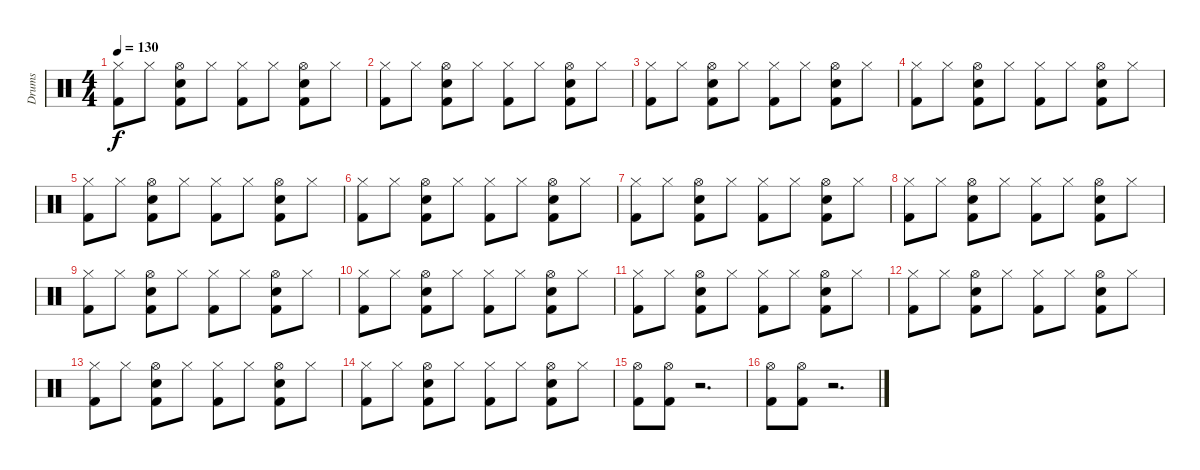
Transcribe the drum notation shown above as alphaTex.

\track ("Drums" "Drums") {instrument percussion}
\staff {score}
\articulation defaults
\ts (4 4)
\tempo 130
\clef neutral
\ks c
("Hi-Hat (closed)" "Kick (hit) 2").8{dy f} "Hi-Hat (closed)".8 ("Hi-Hat (open)" "Electric Snare (hit)" "Kick (hit) 2").8 "Hi-Hat (closed)".8 ("Hi-Hat (closed)" "Kick (hit) 2").8 "Hi-Hat (closed)".8 ("Hi-Hat (open)" "Electric Snare (hit)" "Kick (hit) 2").8 "Hi-Hat (closed)".8 |
("Hi-Hat (closed)" "Kick (hit) 2").8 "Hi-Hat (closed)".8 ("Hi-Hat (open)" "Electric Snare (hit)" "Kick (hit) 2").8 "Hi-Hat (closed)".8 ("Hi-Hat (closed)" "Kick (hit) 2").8 "Hi-Hat (closed)".8 ("Hi-Hat (open)" "Electric Snare (hit)" "Kick (hit) 2").8 "Hi-Hat (closed)".8 |
("Hi-Hat (closed)" "Kick (hit) 2").8 "Hi-Hat (closed)".8 ("Hi-Hat (open)" "Electric Snare (hit)" "Kick (hit) 2").8 "Hi-Hat (closed)".8 ("Hi-Hat (closed)" "Kick (hit) 2").8 "Hi-Hat (closed)".8 ("Hi-Hat (open)" "Electric Snare (hit)" "Kick (hit) 2").8 "Hi-Hat (closed)".8 |
("Hi-Hat (closed)" "Kick (hit) 2").8 "Hi-Hat (closed)".8 ("Hi-Hat (open)" "Electric Snare (hit)" "Kick (hit) 2").8 "Hi-Hat (closed)".8 ("Hi-Hat (closed)" "Kick (hit) 2").8 "Hi-Hat (closed)".8 ("Hi-Hat (open)" "Electric Snare (hit)" "Kick (hit) 2").8 "Hi-Hat (closed)".8 |
("Hi-Hat (closed)" "Kick (hit) 2").8 "Hi-Hat (closed)".8 ("Hi-Hat (open)" "Electric Snare (hit)" "Kick (hit) 2").8 "Hi-Hat (closed)".8 ("Hi-Hat (closed)" "Kick (hit) 2").8 "Hi-Hat (closed)".8 ("Hi-Hat (open)" "Electric Snare (hit)" "Kick (hit) 2").8 "Hi-Hat (closed)".8 |
("Hi-Hat (closed)" "Kick (hit) 2").8 "Hi-Hat (closed)".8 ("Hi-Hat (open)" "Electric Snare (hit)" "Kick (hit) 2").8 "Hi-Hat (closed)".8 ("Hi-Hat (closed)" "Kick (hit) 2").8 "Hi-Hat (closed)".8 ("Hi-Hat (open)" "Electric Snare (hit)" "Kick (hit) 2").8 "Hi-Hat (closed)".8 |
("Hi-Hat (closed)" "Kick (hit) 2").8 "Hi-Hat (closed)".8 ("Hi-Hat (open)" "Electric Snare (hit)" "Kick (hit) 2").8 "Hi-Hat (closed)".8 ("Hi-Hat (closed)" "Kick (hit) 2").8 "Hi-Hat (closed)".8 ("Hi-Hat (open)" "Electric Snare (hit)" "Kick (hit) 2").8 "Hi-Hat (closed)".8 |
("Hi-Hat (closed)" "Kick (hit) 2").8 "Hi-Hat (closed)".8 ("Hi-Hat (open)" "Electric Snare (hit)" "Kick (hit) 2").8 "Hi-Hat (closed)".8 ("Hi-Hat (closed)" "Kick (hit) 2").8 "Hi-Hat (closed)".8 ("Hi-Hat (open)" "Electric Snare (hit)" "Kick (hit) 2").8 "Hi-Hat (closed)".8 |
("Hi-Hat (closed)" "Kick (hit) 2").8 "Hi-Hat (closed)".8 ("Hi-Hat (open)" "Electric Snare (hit)" "Kick (hit) 2").8 "Hi-Hat (closed)".8 ("Hi-Hat (closed)" "Kick (hit) 2").8 "Hi-Hat (closed)".8 ("Hi-Hat (open)" "Electric Snare (hit)" "Kick (hit) 2").8 "Hi-Hat (closed)".8 |
("Hi-Hat (closed)" "Kick (hit) 2").8 "Hi-Hat (closed)".8 ("Hi-Hat (open)" "Electric Snare (hit)" "Kick (hit) 2").8 "Hi-Hat (closed)".8 ("Hi-Hat (closed)" "Kick (hit) 2").8 "Hi-Hat (closed)".8 ("Hi-Hat (open)" "Electric Snare (hit)" "Kick (hit) 2").8 "Hi-Hat (closed)".8 |
("Hi-Hat (closed)" "Kick (hit) 2").8 "Hi-Hat (closed)".8 ("Hi-Hat (open)" "Electric Snare (hit)" "Kick (hit) 2").8 "Hi-Hat (closed)".8 ("Hi-Hat (closed)" "Kick (hit) 2").8 "Hi-Hat (closed)".8 ("Hi-Hat (open)" "Electric Snare (hit)" "Kick (hit) 2").8 "Hi-Hat (closed)".8 |
("Hi-Hat (closed)" "Kick (hit) 2").8 "Hi-Hat (closed)".8 ("Hi-Hat (open)" "Electric Snare (hit)" "Kick (hit) 2").8 "Hi-Hat (closed)".8 ("Hi-Hat (closed)" "Kick (hit) 2").8 "Hi-Hat (closed)".8 ("Hi-Hat (open)" "Electric Snare (hit)" "Kick (hit) 2").8 "Hi-Hat (closed)".8 |
("Hi-Hat (closed)" "Kick (hit) 2").8 "Hi-Hat (closed)".8 ("Hi-Hat (open)" "Electric Snare (hit)" "Kick (hit) 2").8 "Hi-Hat (closed)".8 ("Hi-Hat (closed)" "Kick (hit) 2").8 "Hi-Hat (closed)".8 ("Hi-Hat (open)" "Electric Snare (hit)" "Kick (hit) 2").8 "Hi-Hat (closed)".8 |
("Hi-Hat (closed)" "Kick (hit) 2").8 "Hi-Hat (closed)".8 ("Hi-Hat (open)" "Electric Snare (hit)" "Kick (hit) 2").8 "Hi-Hat (closed)".8 ("Hi-Hat (closed)" "Kick (hit) 2").8 "Hi-Hat (closed)".8 ("Hi-Hat (open)" "Electric Snare (hit)" "Kick (hit) 2").8 "Hi-Hat (closed)".8 |
("Hi-Hat (open)" "Kick (hit) 2").8 ("Hi-Hat (open)" "Kick (hit) 2").8 r.2{d} |
("Hi-Hat (open)" "Kick (hit) 2").8 ("Hi-Hat (open)" "Kick (hit) 2").8 r.2{d}
